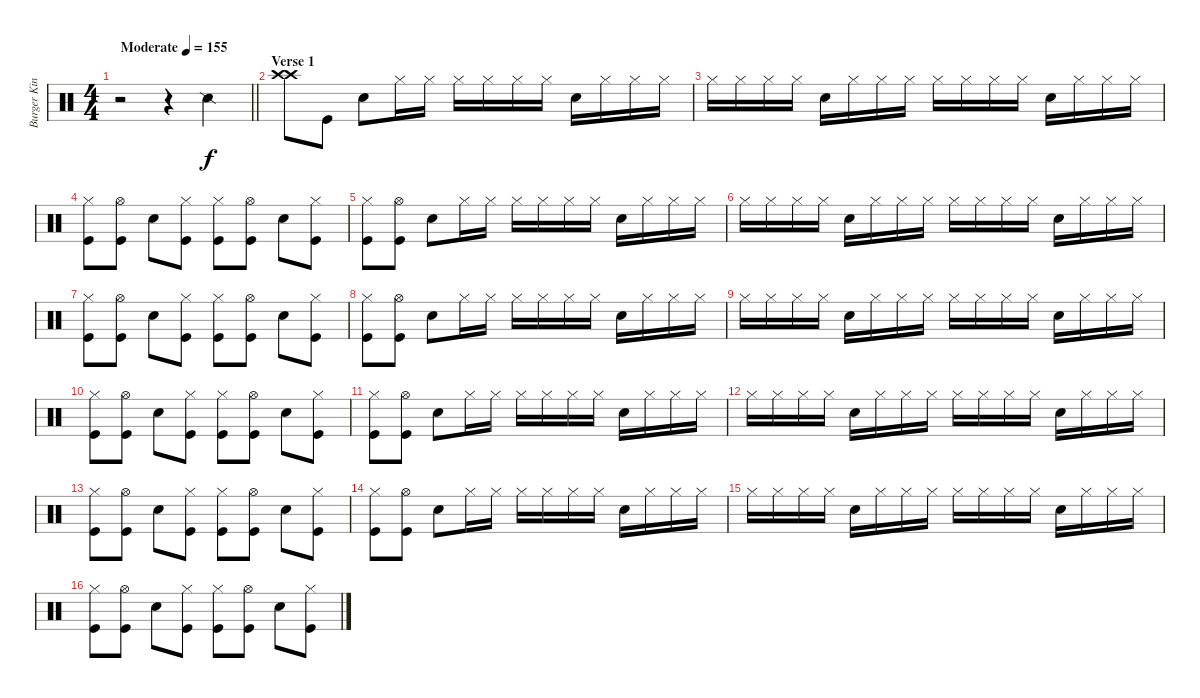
\track ("Burger King" "Burger Kin") {instrument percussion}
\staff {score}
\articulation defaults
\ts (4 4)
\tempo (155 "Moderate")
\clef neutral
\barLineRight lightlight
\ks c
r.2{dy f} r.4 "Snare (side stick) 2".4 |
\section ("" "Verse 1")
("Crash high (hit)" "Crash high (hit)").8 "Kick (hit)".8 "Snare (hit) 2".8 "Hi-Hat (closed)".16 "Hi-Hat (closed)".16 "Hi-Hat (closed)".16 "Hi-Hat (closed)".16 "Hi-Hat (closed)".16 "Hi-Hat (closed)".16 "Snare (hit) 2".16 "Hi-Hat (closed)".16 "Hi-Hat (closed)".16 "Hi-Hat (closed)".16 |
"Hi-Hat (closed)".16 "Hi-Hat (closed)".16 "Hi-Hat (closed)".16 "Hi-Hat (closed)".16 "Snare (hit) 2".16 "Hi-Hat (closed)".16 "Hi-Hat (closed)".16 "Hi-Hat (closed)".16 "Hi-Hat (closed)".16 "Hi-Hat (closed)".16 "Hi-Hat (closed)".16 "Hi-Hat (closed)".16 "Snare (hit) 2".16 "Hi-Hat (closed)".16 "Hi-Hat (closed)".16 "Hi-Hat (closed)".16 |
("Kick (hit)" "Hi-Hat (closed)").8 ("Kick (hit)" "Hi-Hat (open)").8 "Snare (hit) 2".8 ("Kick (hit)" "Hi-Hat (closed)").8 ("Kick (hit)" "Hi-Hat (closed)").8 ("Kick (hit)" "Hi-Hat (open)").8 "Snare (hit) 2".8 ("Hi-Hat (closed)" "Kick (hit)").8 |
("Kick (hit)" "Hi-Hat (closed)").8 ("Kick (hit)" "Hi-Hat (open)").8 "Snare (hit) 2".8 "Hi-Hat (closed)".16 "Hi-Hat (closed)".16 "Hi-Hat (closed)".16 "Hi-Hat (closed)".16 "Hi-Hat (closed)".16 "Hi-Hat (closed)".16 "Snare (hit) 2".16 "Hi-Hat (closed)".16 "Hi-Hat (closed)".16 "Hi-Hat (closed)".16 |
"Hi-Hat (closed)".16 "Hi-Hat (closed)".16 "Hi-Hat (closed)".16 "Hi-Hat (closed)".16 "Snare (hit) 2".16 "Hi-Hat (closed)".16 "Hi-Hat (closed)".16 "Hi-Hat (closed)".16 "Hi-Hat (closed)".16 "Hi-Hat (closed)".16 "Hi-Hat (closed)".16 "Hi-Hat (closed)".16 "Snare (hit) 2".16 "Hi-Hat (closed)".16 "Hi-Hat (closed)".16 "Hi-Hat (closed)".16 |
("Kick (hit)" "Hi-Hat (closed)").8 ("Kick (hit)" "Hi-Hat (open)").8 "Snare (hit) 2".8 ("Kick (hit)" "Hi-Hat (closed)").8 ("Kick (hit)" "Hi-Hat (closed)").8 ("Kick (hit)" "Hi-Hat (open)").8 "Snare (hit) 2".8 ("Hi-Hat (closed)" "Kick (hit)").8 |
("Kick (hit)" "Hi-Hat (closed)").8 ("Kick (hit)" "Hi-Hat (open)").8 "Snare (hit) 2".8 "Hi-Hat (closed)".16 "Hi-Hat (closed)".16 "Hi-Hat (closed)".16 "Hi-Hat (closed)".16 "Hi-Hat (closed)".16 "Hi-Hat (closed)".16 "Snare (hit) 2".16 "Hi-Hat (closed)".16 "Hi-Hat (closed)".16 "Hi-Hat (closed)".16 |
"Hi-Hat (closed)".16 "Hi-Hat (closed)".16 "Hi-Hat (closed)".16 "Hi-Hat (closed)".16 "Snare (hit) 2".16 "Hi-Hat (closed)".16 "Hi-Hat (closed)".16 "Hi-Hat (closed)".16 "Hi-Hat (closed)".16 "Hi-Hat (closed)".16 "Hi-Hat (closed)".16 "Hi-Hat (closed)".16 "Snare (hit) 2".16 "Hi-Hat (closed)".16 "Hi-Hat (closed)".16 "Hi-Hat (closed)".16 |
("Kick (hit)" "Hi-Hat (closed)").8 ("Kick (hit)" "Hi-Hat (open)").8 "Snare (hit) 2".8 ("Kick (hit)" "Hi-Hat (closed)").8 ("Kick (hit)" "Hi-Hat (closed)").8 ("Kick (hit)" "Hi-Hat (open)").8 "Snare (hit) 2".8 ("Hi-Hat (closed)" "Kick (hit)").8 |
("Kick (hit)" "Hi-Hat (closed)").8 ("Kick (hit)" "Hi-Hat (open)").8 "Snare (hit) 2".8 "Hi-Hat (closed)".16 "Hi-Hat (closed)".16 "Hi-Hat (closed)".16 "Hi-Hat (closed)".16 "Hi-Hat (closed)".16 "Hi-Hat (closed)".16 "Snare (hit) 2".16 "Hi-Hat (closed)".16 "Hi-Hat (closed)".16 "Hi-Hat (closed)".16 |
"Hi-Hat (closed)".16 "Hi-Hat (closed)".16 "Hi-Hat (closed)".16 "Hi-Hat (closed)".16 "Snare (hit) 2".16 "Hi-Hat (closed)".16 "Hi-Hat (closed)".16 "Hi-Hat (closed)".16 "Hi-Hat (closed)".16 "Hi-Hat (closed)".16 "Hi-Hat (closed)".16 "Hi-Hat (closed)".16 "Snare (hit) 2".16 "Hi-Hat (closed)".16 "Hi-Hat (closed)".16 "Hi-Hat (closed)".16 |
("Kick (hit)" "Hi-Hat (closed)").8 ("Kick (hit)" "Hi-Hat (open)").8 "Snare (hit) 2".8 ("Kick (hit)" "Hi-Hat (closed)").8 ("Kick (hit)" "Hi-Hat (closed)").8 ("Kick (hit)" "Hi-Hat (open)").8 "Snare (hit) 2".8 ("Hi-Hat (closed)" "Kick (hit)").8 |
("Kick (hit)" "Hi-Hat (closed)").8 ("Kick (hit)" "Hi-Hat (open)").8 "Snare (hit) 2".8 "Hi-Hat (closed)".16 "Hi-Hat (closed)".16 "Hi-Hat (closed)".16 "Hi-Hat (closed)".16 "Hi-Hat (closed)".16 "Hi-Hat (closed)".16 "Snare (hit) 2".16 "Hi-Hat (closed)".16 "Hi-Hat (closed)".16 "Hi-Hat (closed)".16 |
"Hi-Hat (closed)".16 "Hi-Hat (closed)".16 "Hi-Hat (closed)".16 "Hi-Hat (closed)".16 "Snare (hit) 2".16 "Hi-Hat (closed)".16 "Hi-Hat (closed)".16 "Hi-Hat (closed)".16 "Hi-Hat (closed)".16 "Hi-Hat (closed)".16 "Hi-Hat (closed)".16 "Hi-Hat (closed)".16 "Snare (hit) 2".16 "Hi-Hat (closed)".16 "Hi-Hat (closed)".16 "Hi-Hat (closed)".16 |
("Kick (hit)" "Hi-Hat (closed)").8 ("Kick (hit)" "Hi-Hat (open)").8 "Snare (hit) 2".8 ("Kick (hit)" "Hi-Hat (closed)").8 ("Kick (hit)" "Hi-Hat (closed)").8 ("Kick (hit)" "Hi-Hat (open)").8 "Snare (hit) 2".8 ("Hi-Hat (closed)" "Kick (hit)").8
